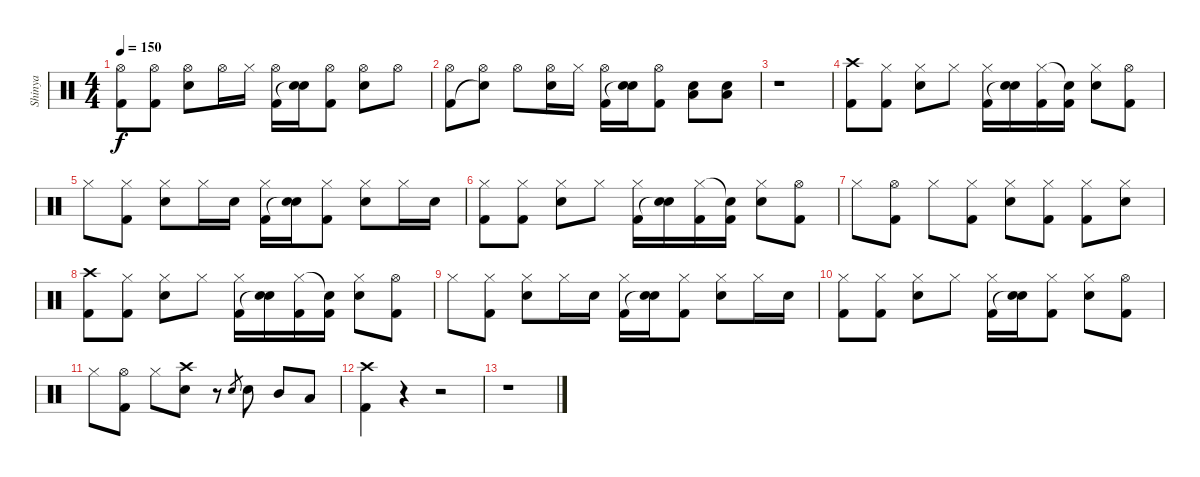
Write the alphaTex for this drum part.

\track ("Shinya" "Shinya") {instrument percussion}
\staff {score}
\articulation defaults
\ts (4 4)
\tempo 150
\clef neutral
\ks c
("Hi-Hat (open)" "Kick (hit) 2").8{dy f} ("Hi-Hat (open)" "Kick (hit) 2").8 ("Hi-Hat (open)" "Electric Snare (hit)").8 "Hi-Hat (open)".16 "Hi-Hat (closed)".16 ("Hi-Hat (open)" "Kick (hit) 2").16 ("Electric Snare (hit)" "Snare (hit)"{t}).16 ("Hi-Hat (open)" "Kick (hit) 2").8 ("Hi-Hat (open)" "Electric Snare (hit)").8 "Hi-Hat (open)".8 |
("Hi-Hat (open)" "Kick (hit) 2").8 ("Hi-Hat (open)" "Snare (hit)"{t}).8 "Hi-Hat (open)".8 ("Hi-Hat (open)" "Electric Snare (hit)").16 "Hi-Hat (closed)".16 ("Hi-Hat (open)" "Kick (hit) 2").16 ("Electric Snare (hit)" "Snare (hit)"{t}).16 ("Hi-Hat (open)" "Kick (hit) 2").8 ("Electric Snare (hit)" "Low Floor Tom (hit)").8 ("Electric Snare (hit)" "Low Floor Tom (hit)").8 |
r.1 |
("Crash high (hit)" "Kick (hit) 2").8 ("Hi-Hat (closed)" "Kick (hit) 2").8 ("Hi-Hat (closed)" "Electric Snare (hit)").8 "Hi-Hat (closed)".8 ("Hi-Hat (closed)" "Kick (hit) 2").16 ("Electric Snare (hit)" "Snare (hit)"{t}).16 ("Hi-Hat (closed)" "Kick (hit) 2").16 ("Snare (hit)"{t} "Kick (hit) 2").16 ("Hi-Hat (closed)" "Electric Snare (hit)").8 ("Hi-Hat (open)" "Kick (hit) 2").8 |
"Hi-Hat (closed)".8 ("Hi-Hat (closed)" "Kick (hit) 2").8 ("Hi-Hat (closed)" "Electric Snare (hit)").8 "Hi-Hat (closed)".16 "Electric Snare (hit)".16 ("Hi-Hat (closed)" "Kick (hit) 2").16 ("Electric Snare (hit)" "Snare (hit)"{t}).16 ("Hi-Hat (closed)" "Kick (hit) 2").8 ("Hi-Hat (closed)" "Electric Snare (hit)").8 "Hi-Hat (closed)".16 "Electric Snare (hit)".16 |
("Hi-Hat (closed)" "Kick (hit) 2").8 ("Hi-Hat (closed)" "Kick (hit) 2").8 ("Hi-Hat (closed)" "Electric Snare (hit)").8 "Hi-Hat (closed)".8 ("Hi-Hat (closed)" "Kick (hit) 2").16 ("Electric Snare (hit)" "Snare (hit)"{t}).16 ("Hi-Hat (closed)" "Kick (hit) 2").16 ("Snare (hit)"{t} "Kick (hit) 2").16 ("Hi-Hat (closed)" "Electric Snare (hit)").8 ("Hi-Hat (open)" "Kick (hit) 2").8 |
"Hi-Hat (closed)".8 ("Hi-Hat (open)" "Kick (hit) 2").8 "Hi-Hat (closed)".8 ("Hi-Hat (closed)" "Kick (hit) 2").8 ("Hi-Hat (closed)" "Electric Snare (hit)").8 ("Hi-Hat (closed)" "Kick (hit) 2").8 ("Hi-Hat (closed)" "Kick (hit) 2").8 ("Hi-Hat (closed)" "Electric Snare (hit)").8 |
("Crash high (hit)" "Kick (hit) 2").8 ("Hi-Hat (closed)" "Kick (hit) 2").8 ("Hi-Hat (closed)" "Electric Snare (hit)").8 "Hi-Hat (closed)".8 ("Hi-Hat (closed)" "Kick (hit) 2").16 ("Electric Snare (hit)" "Snare (hit)"{t}).16 ("Hi-Hat (closed)" "Kick (hit) 2").16 ("Snare (hit)"{t} "Kick (hit) 2").16 ("Hi-Hat (closed)" "Electric Snare (hit)").8 ("Hi-Hat (open)" "Kick (hit) 2").8 |
"Hi-Hat (closed)".8 ("Hi-Hat (closed)" "Kick (hit) 2").8 ("Hi-Hat (closed)" "Electric Snare (hit)").8 "Hi-Hat (closed)".16 "Electric Snare (hit)".16 ("Hi-Hat (closed)" "Kick (hit) 2").16 ("Electric Snare (hit)" "Snare (hit)"{t}).16 ("Hi-Hat (closed)" "Kick (hit) 2").8 ("Hi-Hat (closed)" "Electric Snare (hit)").8 "Hi-Hat (closed)".16 "Electric Snare (hit)".16 |
("Hi-Hat (closed)" "Kick (hit) 2").8 ("Hi-Hat (closed)" "Kick (hit) 2").8 ("Hi-Hat (closed)" "Electric Snare (hit)").8 "Hi-Hat (closed)".8 ("Hi-Hat (closed)" "Kick (hit) 2").16 ("Electric Snare (hit)" "Snare (hit)"{t}).16 ("Hi-Hat (closed)" "Kick (hit) 2").8 ("Hi-Hat (closed)" "Electric Snare (hit)").8 ("Hi-Hat (open)" "Kick (hit) 2").8 |
"Hi-Hat (closed)".8 ("Hi-Hat (open)" "Kick (hit) 2").8 "Hi-Hat (closed)".8 ("Crash high (hit)" "Electric Snare (hit)").8 r.8 "Electric Snare (hit)".8{gr} "Electric Snare (hit)".8 "Mid Tom (hit)".8 "Low Tom (hit)".8 |
("Crash high (hit)" "Kick (hit) 2").4 r.4 r.2 |
r.1
